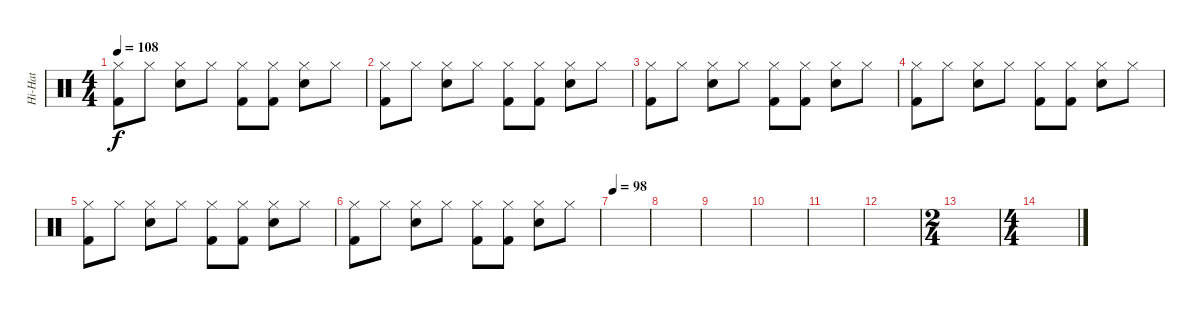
\track ("Hi-Hat" "Hi-Hat") {instrument percussion}
\staff {score}
\articulation defaults
\ts (4 4)
\tempo 108
\clef neutral
\ks c
("Hi-Hat (closed)" "Kick (hit) 2").8{dy f} "Hi-Hat (closed)".8 ("Hi-Hat (closed)" "Snare (hit) 2").8 "Hi-Hat (closed)".8 ("Hi-Hat (closed)" "Kick (hit) 2").8 ("Hi-Hat (closed)" "Kick (hit) 2").8 ("Hi-Hat (closed)" "Snare (hit) 2").8 "Hi-Hat (closed)".8 |
("Hi-Hat (closed)" "Kick (hit) 2").8 "Hi-Hat (closed)".8 ("Hi-Hat (closed)" "Snare (hit) 2").8 "Hi-Hat (closed)".8 ("Hi-Hat (closed)" "Kick (hit) 2").8 ("Hi-Hat (closed)" "Kick (hit) 2").8 ("Hi-Hat (closed)" "Snare (hit) 2").8 "Hi-Hat (closed)".8 |
("Hi-Hat (closed)" "Kick (hit) 2").8 "Hi-Hat (closed)".8 ("Hi-Hat (closed)" "Snare (hit) 2").8 "Hi-Hat (closed)".8 ("Hi-Hat (closed)" "Kick (hit) 2").8 ("Hi-Hat (closed)" "Kick (hit) 2").8 ("Hi-Hat (closed)" "Snare (hit) 2").8 "Hi-Hat (closed)".8 |
("Hi-Hat (closed)" "Kick (hit) 2").8 "Hi-Hat (closed)".8 ("Hi-Hat (closed)" "Snare (hit) 2").8 "Hi-Hat (closed)".8 ("Hi-Hat (closed)" "Kick (hit) 2").8 ("Hi-Hat (closed)" "Kick (hit) 2").8 ("Hi-Hat (closed)" "Snare (hit) 2").8 "Hi-Hat (closed)".8 |
("Hi-Hat (closed)" "Kick (hit) 2").8 "Hi-Hat (closed)".8 ("Hi-Hat (closed)" "Snare (hit) 2").8 "Hi-Hat (closed)".8 ("Hi-Hat (closed)" "Kick (hit) 2").8 ("Hi-Hat (closed)" "Kick (hit) 2").8 ("Hi-Hat (closed)" "Snare (hit) 2").8 "Hi-Hat (closed)".8 |
("Hi-Hat (closed)" "Kick (hit) 2").8 "Hi-Hat (closed)".8 ("Hi-Hat (closed)" "Snare (hit) 2").8 "Hi-Hat (closed)".8 ("Hi-Hat (closed)" "Kick (hit) 2").8 ("Hi-Hat (closed)" "Kick (hit) 2").8 ("Hi-Hat (closed)" "Snare (hit) 2").8 "Hi-Hat (closed)".8 |
\tempo 98
|
|
|
|
|
|
\ts (2 4)
|
\ts (4 4)
